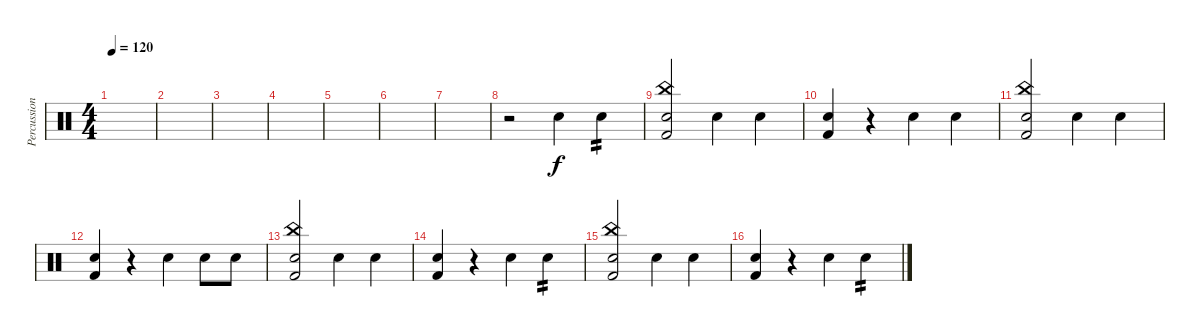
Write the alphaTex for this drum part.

\track ("Percussion" "Percussion") {instrument percussion}
\staff {score}
\articulation defaults
\ts (4 4)
\tempo 120
\clef neutral
\ks c
|
|
|
|
|
|
|
r.2 "Snare (hit) 2".4 "Snare (hit) 2".4{tp 2} |
("China (hit)" "Snare (hit) 2" "Kick (hit) 2").2 "Snare (hit) 2".4 "Snare (hit) 2".4 |
("Snare (hit) 2" "Kick (hit) 2").4 r.4 "Snare (hit) 2".4 "Snare (hit) 2".4 |
("China (hit)" "Snare (hit) 2" "Kick (hit) 2").2 "Snare (hit) 2".4 "Snare (hit) 2".4 |
("Snare (hit) 2" "Kick (hit) 2").4 r.4 "Snare (hit) 2".4 "Snare (hit) 2".8 "Snare (hit) 2".8 |
("China (hit)" "Snare (hit) 2" "Kick (hit) 2").2 "Snare (hit) 2".4 "Snare (hit) 2".4 |
("Snare (hit) 2" "Kick (hit) 2").4 r.4 "Snare (hit) 2".4 "Snare (hit) 2".4{tp 2} |
("China (hit)" "Snare (hit) 2" "Kick (hit) 2").2 "Snare (hit) 2".4 "Snare (hit) 2".4 |
("Snare (hit) 2" "Kick (hit) 2").4 r.4 "Snare (hit) 2".4 "Snare (hit) 2".4{tp 2}
